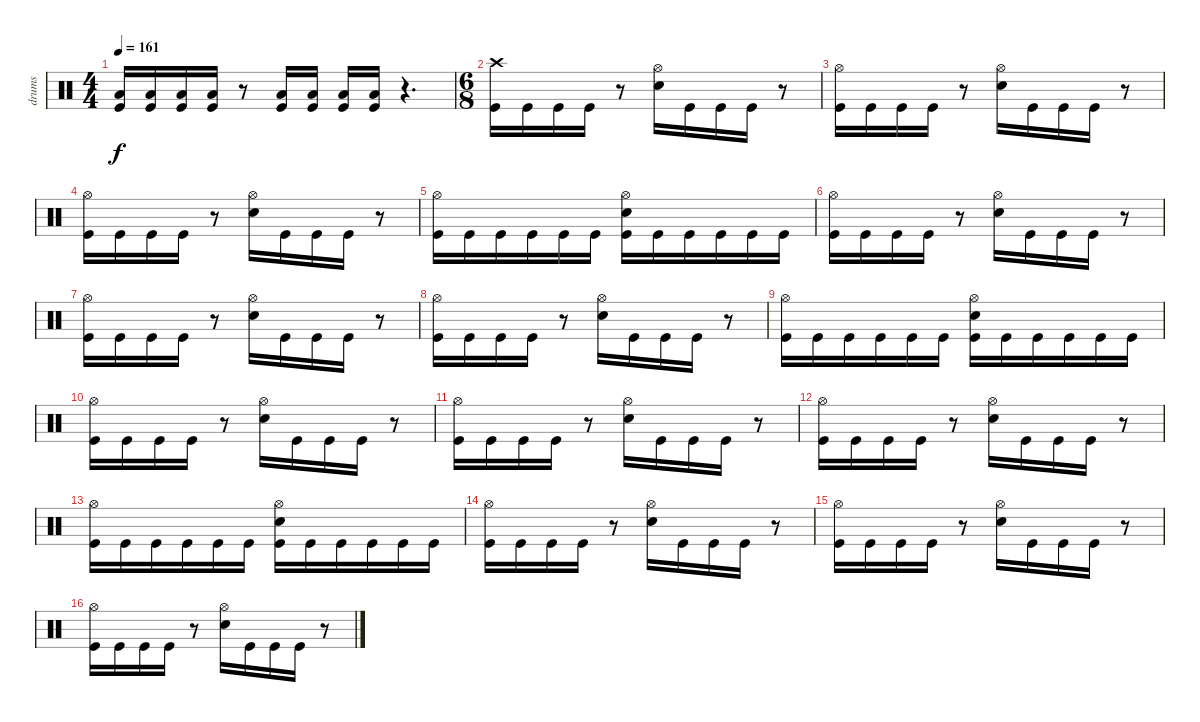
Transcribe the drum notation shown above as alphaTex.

\track ("drums" "drums") {instrument percussion}
\staff {score}
\articulation defaults
\ts (4 4)
\tempo 161
\clef neutral
\ks c
("Kick (hit)" "Low Floor Tom (hit)").16{dy f} ("Kick (hit)" "Low Floor Tom (hit)").16 ("Kick (hit)" "Low Floor Tom (hit)").16 ("Kick (hit)" "Low Floor Tom (hit)").16 r.8 ("Kick (hit)" "Low Floor Tom (hit)").16 ("Kick (hit)" "Low Floor Tom (hit)").16 ("Kick (hit)" "Low Floor Tom (hit)").16 ("Kick (hit)" "Low Floor Tom (hit)").16 r.4{d} |
\ts (6 8)
("Kick (hit)" "Crash high (hit)").16 "Kick (hit)".16 "Kick (hit)".16 "Kick (hit)".16 r.8 ("Electric Snare (hit)" "Hi-Hat (open)").16 "Kick (hit)".16 "Kick (hit)".16 "Kick (hit)".16 r.8 |
("Kick (hit)" "Hi-Hat (open)").16 "Kick (hit)".16 "Kick (hit)".16 "Kick (hit)".16 r.8 ("Electric Snare (hit)" "Hi-Hat (open)").16 "Kick (hit)".16 "Kick (hit)".16 "Kick (hit)".16 r.8 |
("Kick (hit)" "Hi-Hat (open)").16 "Kick (hit)".16 "Kick (hit)".16 "Kick (hit)".16 r.8 ("Electric Snare (hit)" "Hi-Hat (open)").16 "Kick (hit)".16 "Kick (hit)".16 "Kick (hit)".16 r.8 |
("Kick (hit)" "Hi-Hat (open)").16 "Kick (hit)".16 "Kick (hit)".16 "Kick (hit)".16 "Kick (hit)".16 "Kick (hit)".16 ("Kick (hit)" "Electric Snare (hit)" "Hi-Hat (open)").16 "Kick (hit)".16 "Kick (hit)".16 "Kick (hit)".16 "Kick (hit)".16 "Kick (hit)".16 |
("Kick (hit)" "Hi-Hat (open)").16 "Kick (hit)".16 "Kick (hit)".16 "Kick (hit)".16 r.8 ("Electric Snare (hit)" "Hi-Hat (open)").16 "Kick (hit)".16 "Kick (hit)".16 "Kick (hit)".16 r.8 |
("Kick (hit)" "Hi-Hat (open)").16 "Kick (hit)".16 "Kick (hit)".16 "Kick (hit)".16 r.8 ("Electric Snare (hit)" "Hi-Hat (open)").16 "Kick (hit)".16 "Kick (hit)".16 "Kick (hit)".16 r.8 |
("Kick (hit)" "Hi-Hat (open)").16 "Kick (hit)".16 "Kick (hit)".16 "Kick (hit)".16 r.8 ("Electric Snare (hit)" "Hi-Hat (open)").16 "Kick (hit)".16 "Kick (hit)".16 "Kick (hit)".16 r.8 |
("Kick (hit)" "Hi-Hat (open)").16 "Kick (hit)".16 "Kick (hit)".16 "Kick (hit)".16 "Kick (hit)".16 "Kick (hit)".16 ("Kick (hit)" "Electric Snare (hit)" "Hi-Hat (open)").16 "Kick (hit)".16 "Kick (hit)".16 "Kick (hit)".16 "Kick (hit)".16 "Kick (hit)".16 |
("Kick (hit)" "Hi-Hat (open)").16 "Kick (hit)".16 "Kick (hit)".16 "Kick (hit)".16 r.8 ("Electric Snare (hit)" "Hi-Hat (open)").16 "Kick (hit)".16 "Kick (hit)".16 "Kick (hit)".16 r.8 |
("Kick (hit)" "Hi-Hat (open)").16 "Kick (hit)".16 "Kick (hit)".16 "Kick (hit)".16 r.8 ("Electric Snare (hit)" "Hi-Hat (open)").16 "Kick (hit)".16 "Kick (hit)".16 "Kick (hit)".16 r.8 |
("Kick (hit)" "Hi-Hat (open)").16 "Kick (hit)".16 "Kick (hit)".16 "Kick (hit)".16 r.8 ("Electric Snare (hit)" "Hi-Hat (open)").16 "Kick (hit)".16 "Kick (hit)".16 "Kick (hit)".16 r.8 |
("Kick (hit)" "Hi-Hat (open)").16 "Kick (hit)".16 "Kick (hit)".16 "Kick (hit)".16 "Kick (hit)".16 "Kick (hit)".16 ("Kick (hit)" "Electric Snare (hit)" "Hi-Hat (open)").16 "Kick (hit)".16 "Kick (hit)".16 "Kick (hit)".16 "Kick (hit)".16 "Kick (hit)".16 |
("Kick (hit)" "Hi-Hat (open)").16 "Kick (hit)".16 "Kick (hit)".16 "Kick (hit)".16 r.8 ("Electric Snare (hit)" "Hi-Hat (open)").16 "Kick (hit)".16 "Kick (hit)".16 "Kick (hit)".16 r.8 |
("Kick (hit)" "Hi-Hat (open)").16 "Kick (hit)".16 "Kick (hit)".16 "Kick (hit)".16 r.8 ("Electric Snare (hit)" "Hi-Hat (open)").16 "Kick (hit)".16 "Kick (hit)".16 "Kick (hit)".16 r.8 |
("Kick (hit)" "Hi-Hat (open)").16 "Kick (hit)".16 "Kick (hit)".16 "Kick (hit)".16 r.8 ("Electric Snare (hit)" "Hi-Hat (open)").16 "Kick (hit)".16 "Kick (hit)".16 "Kick (hit)".16 r.8
